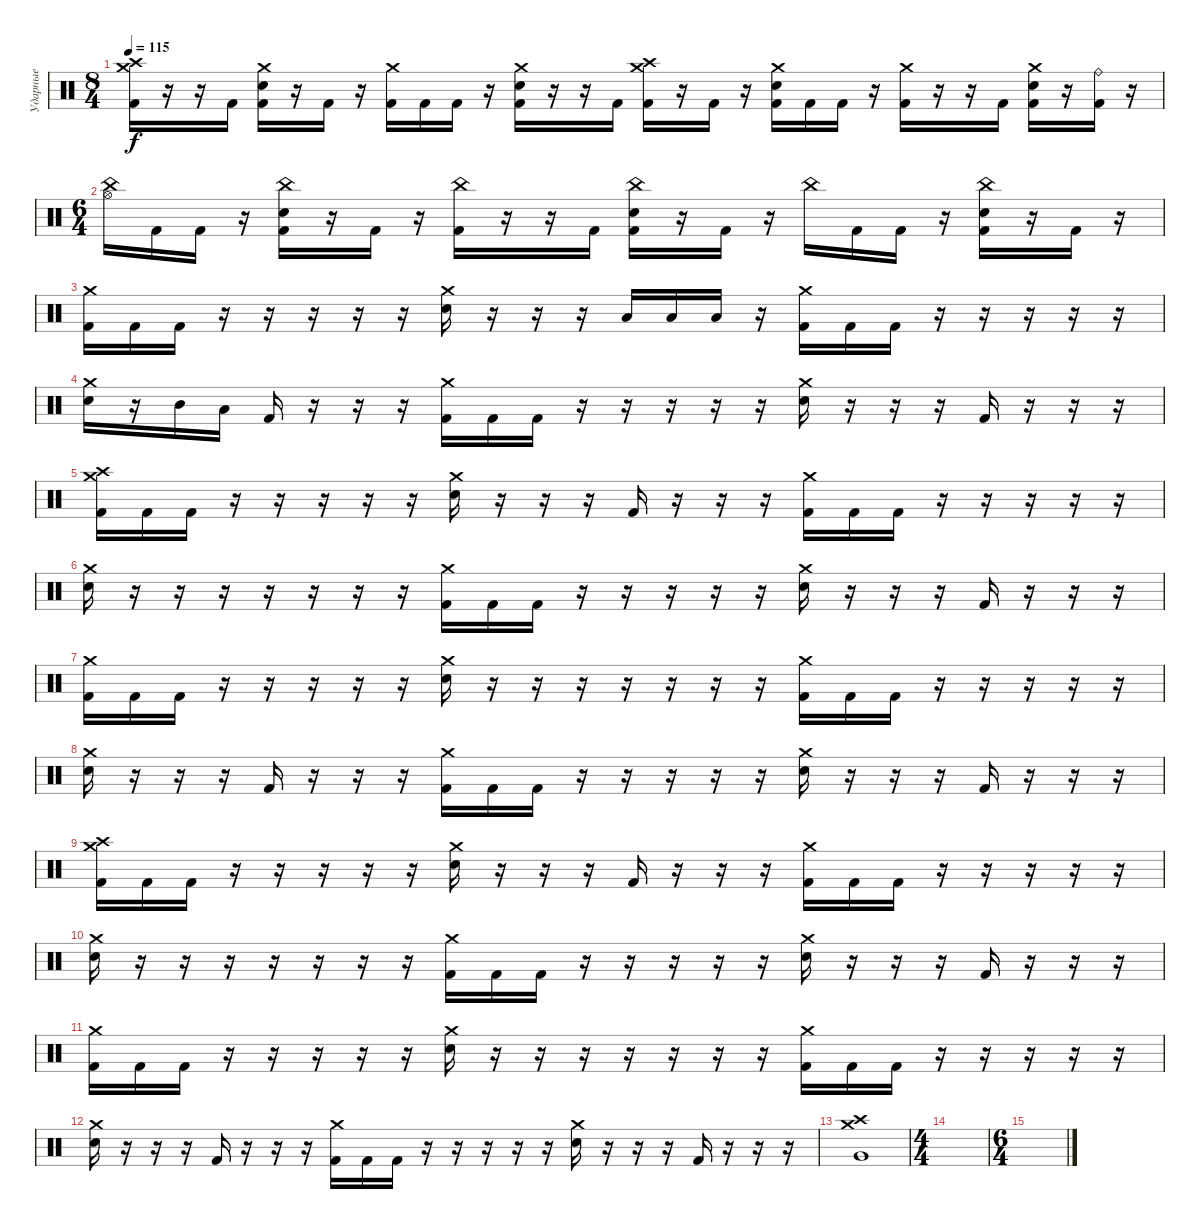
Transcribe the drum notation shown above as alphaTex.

\track ("Ударные" "Ударные") {instrument percussion}
\staff {score}
\articulation defaults
\ts (8 4)
\tempo 115
\clef neutral
\ks c
("Crash medium (hit)" "Crash high (hit)" "Kick (hit) 2").16{dy f} r.16 r.16 "Kick (hit) 2".16 ("Crash medium (hit)" "Electric Snare (hit)" "Kick (hit) 2").16 r.16 "Kick (hit) 2".16 r.16 ("Crash medium (hit)" "Kick (hit) 2").16 "Kick (hit) 2".16 "Kick (hit) 2".16 r.16 ("Crash medium (hit)" "Electric Snare (hit)" "Kick (hit) 2").16 r.16 r.16 "Kick (hit) 2".16 ("Crash medium (hit)" "Crash high (hit)" "Kick (hit) 2").16 r.16 "Kick (hit) 2".16 r.16 ("Crash medium (hit)" "Electric Snare (hit)" "Kick (hit) 2").16 "Kick (hit) 2".16 "Kick (hit) 2".16 r.16 ("Crash medium (hit)" "Kick (hit) 2").16 r.16 r.16 "Kick (hit) 2".16 ("Crash medium (hit)" "Electric Snare (hit)" "Kick (hit) 2").16 r.16 ("Ride (bell)" "Kick (hit) 2").16 r.16 |
\ts (6 4)
("China (hit)" "Hi-Hat (open)").16 "Kick (hit) 2".16 "Kick (hit) 2".16 r.16 ("China (hit)" "Electric Snare (hit)" "Kick (hit) 2").16 r.16 "Kick (hit) 2".16 r.16 ("China (hit)" "Kick (hit) 2").16 r.16 r.16 "Kick (hit) 2".16 ("China (hit)" "Electric Snare (hit)" "Kick (hit) 2").16 r.16 "Kick (hit) 2".16 r.16 "China (hit)".16 "Kick (hit) 2".16 "Kick (hit) 2".16 r.16 ("China (hit)" "Electric Snare (hit)" "Kick (hit) 2").16 r.16 "Kick (hit) 2".16 r.16 |
("Crash medium (hit)" "Kick (hit) 2").16 "Kick (hit) 2".16 "Kick (hit) 2".16 r.16 r.16 r.16 r.16 r.16 ("Crash medium (hit)" "Electric Snare (hit)").16 r.16 r.16 r.16 "Low Tom (hit)".16 "Low Tom (hit)".16 "Low Tom (hit)".16 r.16 ("Crash medium (hit)" "Kick (hit) 2").16 "Kick (hit) 2".16 "Kick (hit) 2".16 r.16 r.16 r.16 r.16 r.16 |
("Crash medium (hit)" "Electric Snare (hit)").16 r.16 "Mid Tom (hit)".16 "Low Tom (hit)".16 "Kick (hit) 2".16 r.16 r.16 r.16 ("Crash medium (hit)" "Kick (hit) 2").16 "Kick (hit) 2".16 "Kick (hit) 2".16 r.16 r.16 r.16 r.16 r.16 ("Crash medium (hit)" "Electric Snare (hit)").16 r.16 r.16 r.16 "Kick (hit) 2".16 r.16 r.16 r.16 |
("Crash medium (hit)" "Crash high (hit)" "Kick (hit) 2").16 "Kick (hit) 2".16 "Kick (hit) 2".16 r.16 r.16 r.16 r.16 r.16 ("Crash medium (hit)" "Electric Snare (hit)").16 r.16 r.16 r.16 "Kick (hit) 2".16 r.16 r.16 r.16 ("Crash medium (hit)" "Kick (hit) 2").16 "Kick (hit) 2".16 "Kick (hit) 2".16 r.16 r.16 r.16 r.16 r.16 |
("Crash medium (hit)" "Electric Snare (hit)").16 r.16 r.16 r.16 r.16 r.16 r.16 r.16 ("Crash medium (hit)" "Kick (hit) 2").16 "Kick (hit) 2".16 "Kick (hit) 2".16 r.16 r.16 r.16 r.16 r.16 ("Crash medium (hit)" "Electric Snare (hit)").16 r.16 r.16 r.16 "Kick (hit) 2".16 r.16 r.16 r.16 |
("Crash medium (hit)" "Kick (hit) 2").16 "Kick (hit) 2".16 "Kick (hit) 2".16 r.16 r.16 r.16 r.16 r.16 ("Crash medium (hit)" "Electric Snare (hit)").16 r.16 r.16 r.16 r.16 r.16 r.16 r.16 ("Crash medium (hit)" "Kick (hit) 2").16 "Kick (hit) 2".16 "Kick (hit) 2".16 r.16 r.16 r.16 r.16 r.16 |
("Crash medium (hit)" "Electric Snare (hit)").16 r.16 r.16 r.16 "Kick (hit) 2".16 r.16 r.16 r.16 ("Crash medium (hit)" "Kick (hit) 2").16 "Kick (hit) 2".16 "Kick (hit) 2".16 r.16 r.16 r.16 r.16 r.16 ("Crash medium (hit)" "Electric Snare (hit)").16 r.16 r.16 r.16 "Kick (hit) 2".16 r.16 r.16 r.16 |
("Crash medium (hit)" "Crash high (hit)" "Kick (hit) 2").16 "Kick (hit) 2".16 "Kick (hit) 2".16 r.16 r.16 r.16 r.16 r.16 ("Crash medium (hit)" "Electric Snare (hit)").16 r.16 r.16 r.16 "Kick (hit) 2".16 r.16 r.16 r.16 ("Crash medium (hit)" "Kick (hit) 2").16 "Kick (hit) 2".16 "Kick (hit) 2".16 r.16 r.16 r.16 r.16 r.16 |
("Crash medium (hit)" "Electric Snare (hit)").16 r.16 r.16 r.16 r.16 r.16 r.16 r.16 ("Crash medium (hit)" "Kick (hit) 2").16 "Kick (hit) 2".16 "Kick (hit) 2".16 r.16 r.16 r.16 r.16 r.16 ("Crash medium (hit)" "Electric Snare (hit)").16 r.16 r.16 r.16 "Kick (hit) 2".16 r.16 r.16 r.16 |
("Crash medium (hit)" "Kick (hit) 2").16 "Kick (hit) 2".16 "Kick (hit) 2".16 r.16 r.16 r.16 r.16 r.16 ("Crash medium (hit)" "Electric Snare (hit)").16 r.16 r.16 r.16 r.16 r.16 r.16 r.16 ("Crash medium (hit)" "Kick (hit) 2").16 "Kick (hit) 2".16 "Kick (hit) 2".16 r.16 r.16 r.16 r.16 r.16 |
("Crash medium (hit)" "Electric Snare (hit)").16 r.16 r.16 r.16 "Kick (hit) 2".16 r.16 r.16 r.16 ("Crash medium (hit)" "Kick (hit) 2").16 "Kick (hit) 2".16 "Kick (hit) 2".16 r.16 r.16 r.16 r.16 r.16 ("Crash medium (hit)" "Electric Snare (hit)").16 r.16 r.16 r.16 "Kick (hit) 2".16 r.16 r.16 r.16 |
("Crash medium (hit)" "Crash high (hit)" "Very Low Tom (hit)").1 |
\ts (4 4)
|
\ts (6 4)
